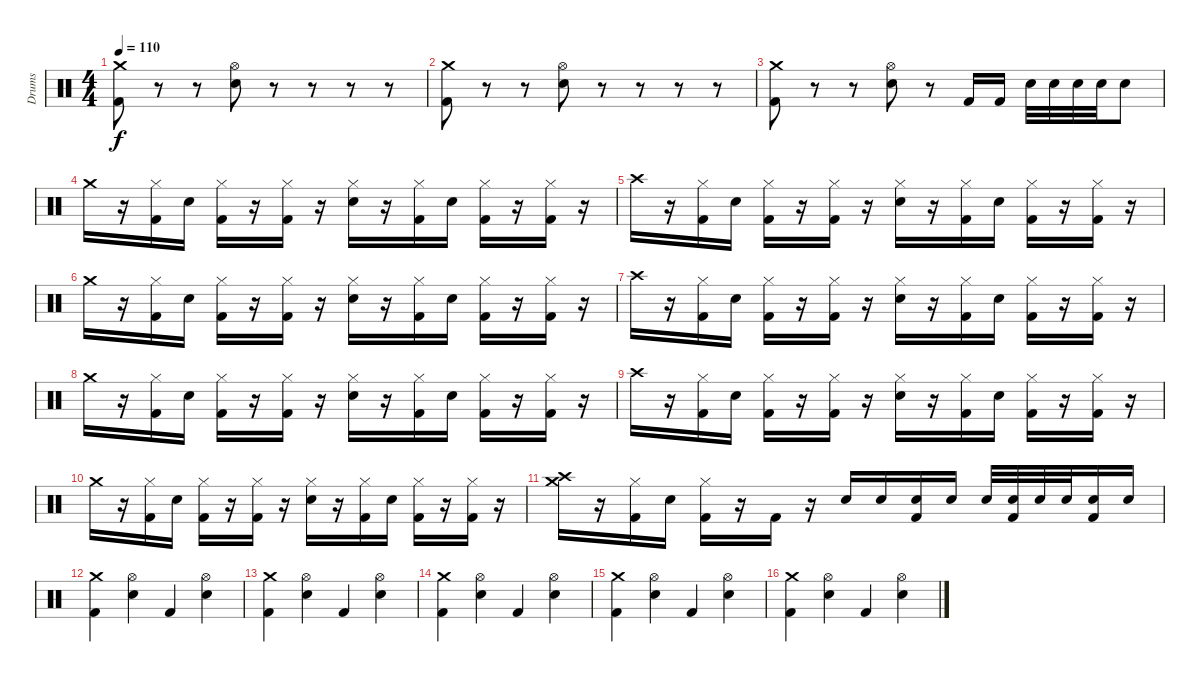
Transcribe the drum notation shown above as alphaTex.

\track ("Drums" "Drums") {instrument percussion}
\staff {score}
\articulation defaults
\ts (4 4)
\tempo 110
\clef neutral
\ks c
("Kick (hit) 2" "Crash medium (hit)").8{dy f} r.8 r.8 ("Hi-Hat (open)" "Electric Snare (hit)").8 r.8 r.8 r.8 r.8 |
("Kick (hit) 2" "Crash medium (hit)").8 r.8 r.8 ("Hi-Hat (open)" "Electric Snare (hit)").8 r.8 r.8 r.8 r.8 |
("Kick (hit) 2" "Crash medium (hit)").8 r.8 r.8 ("Hi-Hat (open)" "Electric Snare (hit)").8 r.8 "Kick (hit) 2".16 "Kick (hit) 2".16 "Electric Snare (hit)".32 "Electric Snare (hit)".32 "Electric Snare (hit)".32 "Electric Snare (hit)".32 "Electric Snare (hit)".8 |
"Crash medium (hit)".16 r.16 ("Kick (hit) 2" "Hi-Hat (closed)").16 "Electric Snare (hit)".16 ("Kick (hit) 2" "Hi-Hat (closed)").16 r.16 ("Kick (hit) 2" "Hi-Hat (closed)").16 r.16 ("Hi-Hat (closed)" "Electric Snare (hit)").16 r.16 ("Kick (hit) 2" "Hi-Hat (closed)").16 "Electric Snare (hit)".16 ("Kick (hit) 2" "Hi-Hat (closed)").16 r.16 ("Kick (hit) 2" "Hi-Hat (closed)").16 r.16 |
"Crash high (hit)".16 r.16 ("Kick (hit) 2" "Hi-Hat (closed)").16 "Electric Snare (hit)".16 ("Kick (hit) 2" "Hi-Hat (closed)").16 r.16 ("Kick (hit) 2" "Hi-Hat (closed)").16 r.16 ("Hi-Hat (closed)" "Electric Snare (hit)").16 r.16 ("Kick (hit) 2" "Hi-Hat (closed)").16 "Electric Snare (hit)".16 ("Kick (hit) 2" "Hi-Hat (closed)").16 r.16 ("Kick (hit) 2" "Hi-Hat (closed)").16 r.16 |
"Crash medium (hit)".16 r.16 ("Kick (hit) 2" "Hi-Hat (closed)").16 "Electric Snare (hit)".16 ("Kick (hit) 2" "Hi-Hat (closed)").16 r.16 ("Kick (hit) 2" "Hi-Hat (closed)").16 r.16 ("Hi-Hat (closed)" "Electric Snare (hit)").16 r.16 ("Kick (hit) 2" "Hi-Hat (closed)").16 "Electric Snare (hit)".16 ("Kick (hit) 2" "Hi-Hat (closed)").16 r.16 ("Kick (hit) 2" "Hi-Hat (closed)").16 r.16 |
"Crash high (hit)".16 r.16 ("Kick (hit) 2" "Hi-Hat (closed)").16 "Electric Snare (hit)".16 ("Kick (hit) 2" "Hi-Hat (closed)").16 r.16 ("Kick (hit) 2" "Hi-Hat (closed)").16 r.16 ("Hi-Hat (closed)" "Electric Snare (hit)").16 r.16 ("Kick (hit) 2" "Hi-Hat (closed)").16 "Electric Snare (hit)".16 ("Kick (hit) 2" "Hi-Hat (closed)").16 r.16 ("Kick (hit) 2" "Hi-Hat (closed)").16 r.16 |
"Crash medium (hit)".16 r.16 ("Kick (hit) 2" "Hi-Hat (closed)").16 "Electric Snare (hit)".16 ("Kick (hit) 2" "Hi-Hat (closed)").16 r.16 ("Kick (hit) 2" "Hi-Hat (closed)").16 r.16 ("Hi-Hat (closed)" "Electric Snare (hit)").16 r.16 ("Kick (hit) 2" "Hi-Hat (closed)").16 "Electric Snare (hit)".16 ("Kick (hit) 2" "Hi-Hat (closed)").16 r.16 ("Kick (hit) 2" "Hi-Hat (closed)").16 r.16 |
"Crash high (hit)".16 r.16 ("Kick (hit) 2" "Hi-Hat (closed)").16 "Electric Snare (hit)".16 ("Kick (hit) 2" "Hi-Hat (closed)").16 r.16 ("Kick (hit) 2" "Hi-Hat (closed)").16 r.16 ("Hi-Hat (closed)" "Electric Snare (hit)").16 r.16 ("Kick (hit) 2" "Hi-Hat (closed)").16 "Electric Snare (hit)".16 ("Kick (hit) 2" "Hi-Hat (closed)").16 r.16 ("Kick (hit) 2" "Hi-Hat (closed)").16 r.16 |
"Crash medium (hit)".16 r.16 ("Kick (hit) 2" "Hi-Hat (closed)").16 "Electric Snare (hit)".16 ("Kick (hit) 2" "Hi-Hat (closed)").16 r.16 ("Kick (hit) 2" "Hi-Hat (closed)").16 r.16 ("Hi-Hat (closed)" "Electric Snare (hit)").16 r.16 ("Kick (hit) 2" "Hi-Hat (closed)").16 "Electric Snare (hit)".16 ("Kick (hit) 2" "Hi-Hat (closed)").16 r.16 ("Kick (hit) 2" "Hi-Hat (closed)").16 r.16 |
("Crash medium (hit)" "Crash high (hit)").16 r.16 ("Kick (hit) 2" "Hi-Hat (closed)").16 "Electric Snare (hit)".16 ("Kick (hit) 2" "Hi-Hat (closed)").16 r.16 "Kick (hit) 2".16 r.16 "Electric Snare (hit)".16 "Electric Snare (hit)".16 ("Kick (hit) 2" "Electric Snare (hit)").16 "Electric Snare (hit)".16 "Electric Snare (hit)".32 ("Kick (hit) 2" "Electric Snare (hit)").32 "Electric Snare (hit)".32 "Electric Snare (hit)".32 ("Kick (hit) 2" "Electric Snare (hit)").16 "Electric Snare (hit)".16 |
("Kick (hit) 2" "Crash medium (hit)").4 ("Hi-Hat (open)" "Electric Snare (hit)").4 "Kick (hit) 2".4 ("Hi-Hat (open)" "Electric Snare (hit)").4 |
("Kick (hit) 2" "Crash medium (hit)").4 ("Hi-Hat (open)" "Electric Snare (hit)").4 "Kick (hit) 2".4 ("Hi-Hat (open)" "Electric Snare (hit)").4 |
("Kick (hit) 2" "Crash medium (hit)").4 ("Hi-Hat (open)" "Electric Snare (hit)").4 "Kick (hit) 2".4 ("Hi-Hat (open)" "Electric Snare (hit)").4 |
("Kick (hit) 2" "Crash medium (hit)").4 ("Hi-Hat (open)" "Electric Snare (hit)").4 "Kick (hit) 2".4 ("Hi-Hat (open)" "Electric Snare (hit)").4 |
("Kick (hit) 2" "Crash medium (hit)").4 ("Hi-Hat (open)" "Electric Snare (hit)").4 "Kick (hit) 2".4 ("Hi-Hat (open)" "Electric Snare (hit)").4
